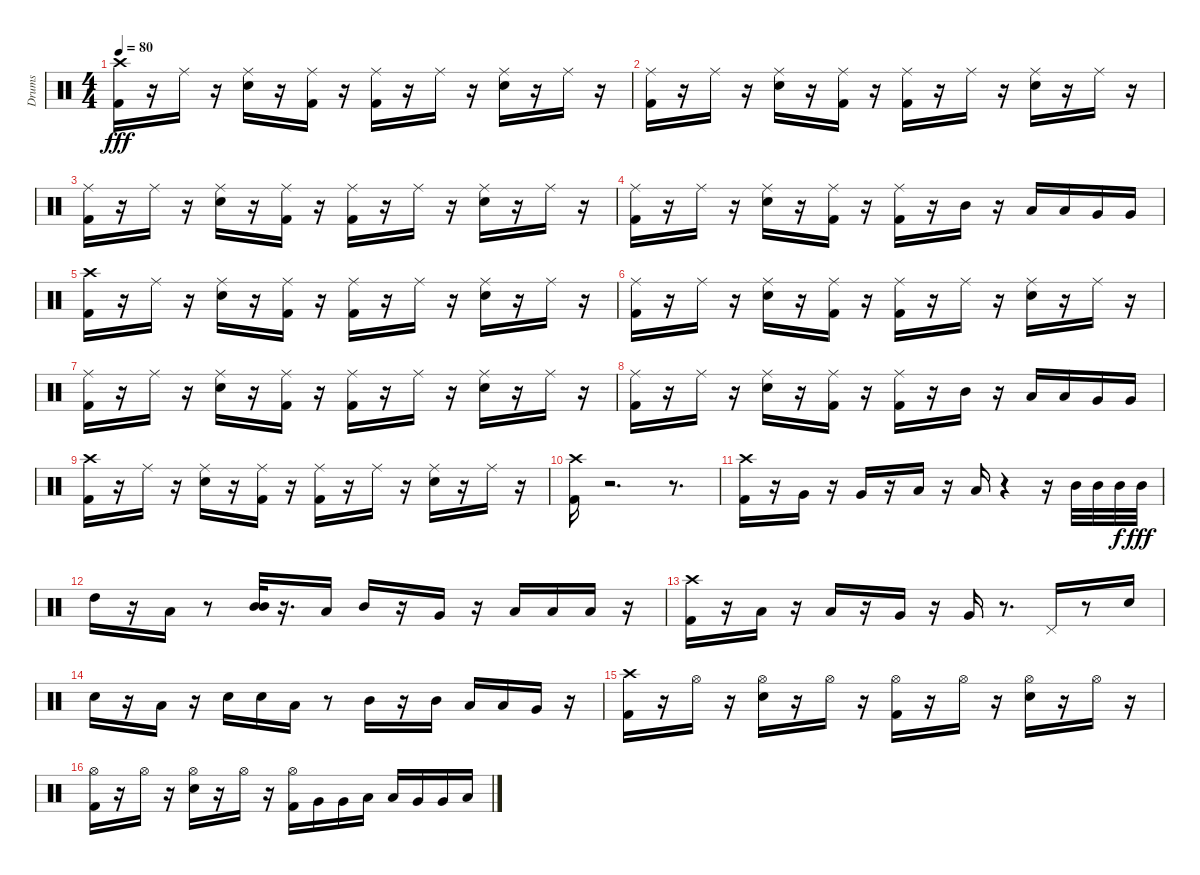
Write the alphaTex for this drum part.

\track ("Drums" "Drums") {instrument percussion}
\staff {score}
\articulation defaults
\ts (4 4)
\tempo 80
\clef neutral
\ks c
("Kick (hit) 2" "Crash high (hit)").16{dy fff} r.16 "Ride (middle)".16 r.16 ("Electric Snare (hit)" "Ride (middle)").16 r.16 ("Kick (hit) 2" "Ride (middle)").16 r.16 ("Kick (hit) 2" "Ride (middle)").16 r.16 "Ride (middle)".16 r.16 ("Electric Snare (hit)" "Ride (middle)").16 r.16 "Ride (middle)".16 r.16 |
("Kick (hit) 2" "Ride (middle)").16 r.16 "Ride (middle)".16 r.16 ("Electric Snare (hit)" "Ride (middle)").16 r.16 ("Kick (hit) 2" "Ride (middle)").16 r.16 ("Kick (hit) 2" "Ride (middle)").16 r.16 "Ride (middle)".16 r.16 ("Electric Snare (hit)" "Ride (middle)").16 r.16 "Ride (middle)".16 r.16 |
("Kick (hit) 2" "Ride (middle)").16 r.16 "Ride (middle)".16 r.16 ("Electric Snare (hit)" "Ride (middle)").16 r.16 ("Kick (hit) 2" "Ride (middle)").16 r.16 ("Kick (hit) 2" "Ride (middle)").16 r.16 "Ride (middle)".16 r.16 ("Electric Snare (hit)" "Ride (middle)").16 r.16 "Ride (middle)".16 r.16 |
("Kick (hit) 2" "Ride (middle)").16 r.16 "Ride (middle)".16 r.16 ("Electric Snare (hit)" "Ride (middle)").16 r.16 ("Kick (hit) 2" "Ride (middle)").16 r.16 ("Kick (hit) 2" "Ride (middle)").16 r.16 "Mid Tom (hit)".16 r.16 "Low Tom (hit)".16 "Low Tom (hit)".16 "Very Low Tom (hit)".16 "Very Low Tom (hit)".16 |
("Kick (hit) 2" "Crash high (hit)").16 r.16 "Ride (middle)".16 r.16 ("Electric Snare (hit)" "Ride (middle)").16 r.16 ("Kick (hit) 2" "Ride (middle)").16 r.16 ("Kick (hit) 2" "Ride (middle)").16 r.16 "Ride (middle)".16 r.16 ("Ride (middle)" "Electric Snare (hit)").16 r.16 "Ride (middle)".16 r.16 |
("Kick (hit) 2" "Ride (middle)").16 r.16 "Ride (middle)".16 r.16 ("Electric Snare (hit)" "Ride (middle)").16 r.16 ("Kick (hit) 2" "Ride (middle)").16 r.16 ("Kick (hit) 2" "Ride (middle)").16 r.16 "Ride (middle)".16 r.16 ("Electric Snare (hit)" "Ride (middle)").16 r.16 "Ride (middle)".16 r.16 |
("Kick (hit) 2" "Ride (middle)").16 r.16 "Ride (middle)".16 r.16 ("Electric Snare (hit)" "Ride (middle)").16 r.16 ("Kick (hit) 2" "Ride (middle)").16 r.16 ("Kick (hit) 2" "Ride (middle)").16 r.16 "Ride (middle)".16 r.16 ("Electric Snare (hit)" "Ride (middle)").16 r.16 "Ride (middle)".16 r.16 |
("Kick (hit) 2" "Ride (middle)").16 r.16 "Ride (middle)".16 r.16 ("Electric Snare (hit)" "Ride (middle)").16 r.16 ("Kick (hit) 2" "Ride (middle)").16 r.16 ("Kick (hit) 2" "Ride (middle)").16 r.16 "Mid Tom (hit)".16 r.16 "Low Tom (hit)".16 "Low Tom (hit)".16 "Very Low Tom (hit)".16 "Very Low Tom (hit)".16 |
("Crash high (hit)" "Kick (hit) 2").16 r.16 "Ride (middle)".16 r.16 ("Electric Snare (hit)" "Ride (middle)").16 r.16 ("Kick (hit) 2" "Ride (middle)").16 r.16 ("Kick (hit) 2" "Ride (middle)").16 r.16 "Ride (middle)".16 r.16 ("Electric Snare (hit)" "Ride (middle)").16 r.16 "Ride (middle)".16 r.16 |
("Kick (hit) 2" "Crash high (hit)").16 r.2{d} r.8{d} |
("Kick (hit) 2" "Crash high (hit)").16 r.16 "Very Low Tom (hit)".16 r.16 "Very Low Tom (hit)".16 r.16 "Low Floor Tom (hit)".16 r.16 "Low Floor Tom (hit)".16 r.4 r.16 "Mid Tom (hit)".32 "Mid Tom (hit)".32 "Mid Tom (hit)".32{dy f} "Mid Tom (hit)".32{dy fff} |
"High Tom (hit)".16 r.16 "Low Tom (hit)".16 r.8 ("Mid Tom (hit)" "Mid Tom (hit)").32 r.16{d} "Low Tom (hit)".16 "Mid Tom (hit)".16 r.16 "Very Low Tom (hit)".16 r.16 "Low Tom (hit)".16 "Low Tom (hit)".16 "Low Floor Tom (hit)".16 r.16 |
("Kick (hit) 2" "Crash high (hit)").16 r.16 "Low Floor Tom (hit)".16 r.16 "Low Floor Tom (hit)".16 r.16 "Very Low Tom (hit)".16 r.16 "Very Low Tom (hit)".16 r.8{d} "Pedal Hi-Hat (hit)".16 r.8 "Electric Snare (hit)".16 |
"Electric Snare (hit)".16 r.16 "Low Tom (hit)".16 r.16 "Electric Snare (hit)".16 "Electric Snare (hit)".16 "Low Tom (hit)".16 r.8 "Mid Tom (hit)".16 r.16 "Mid Tom (hit)".16 "Low Tom (hit)".16 "Low Tom (hit)".16 "Very Low Tom (hit)".16 r.16 |
("Kick (hit) 2" "Crash high (hit)").16 r.16 "Hi-Hat (open)".16 r.16 ("Electric Snare (hit)" "Hi-Hat (open)").16 r.16 "Hi-Hat (open)".16 r.16 ("Kick (hit) 2" "Hi-Hat (open)").16 r.16 "Hi-Hat (open)".16 r.16 ("Electric Snare (hit)" "Hi-Hat (open)").16 r.16 "Hi-Hat (open)".16 r.16 |
("Kick (hit) 2" "Hi-Hat (open)").16 r.16 "Hi-Hat (open)".16 r.16 ("Electric Snare (hit)" "Hi-Hat (open)").16 r.16 "Hi-Hat (open)".16 r.16 ("Kick (hit) 2" "Hi-Hat (open)").16 "Very Low Tom (hit)".16 "Very Low Tom (hit)".16 "Low Tom (hit)".16 "Low Tom (hit)".16 "Very Low Tom (hit)".16 "Very Low Tom (hit)".16 "Low Floor Tom (hit)".16
